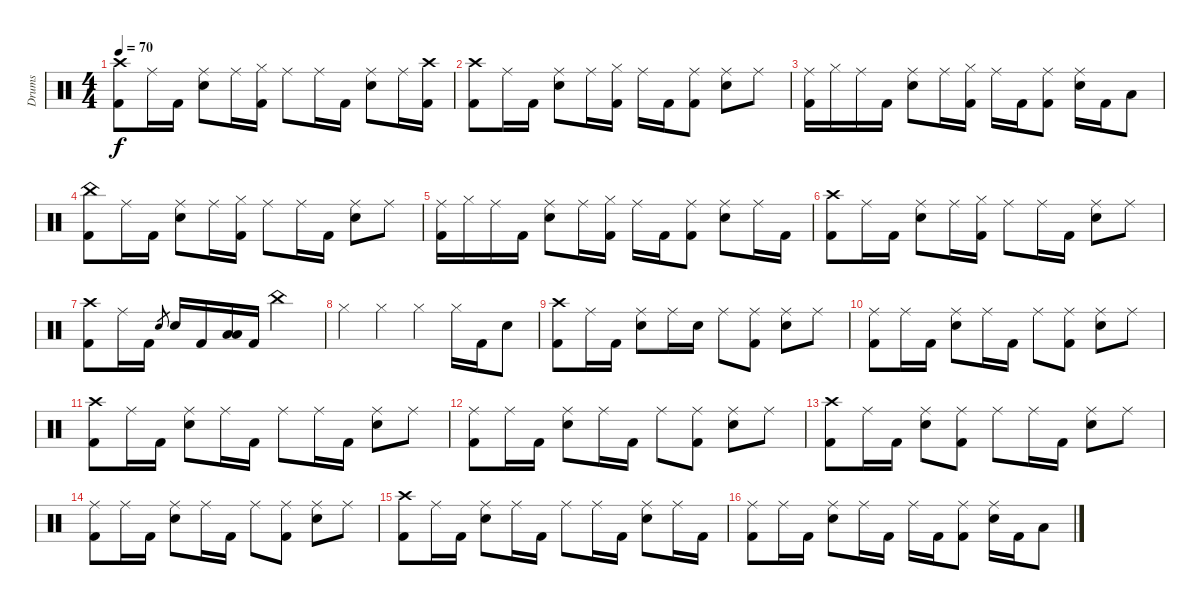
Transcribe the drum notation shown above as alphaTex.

\track ("Drums" "Drums") {instrument percussion}
\staff {score}
\articulation defaults
\ts (4 4)
\tempo 70
\clef neutral
\ks c
("Crash high (hit)" "Kick (hit) 2").8{dy f} "Ride (middle)".16 "Kick (hit) 2".16 ("Ride (middle)" "Electric Snare (hit)").8 "Ride (middle)".16 ("Hi-Hat (closed)" "Kick (hit) 2").16 "Ride (middle)".8 "Ride (middle)".16 "Kick (hit) 2".16 ("Ride (middle)" "Electric Snare (hit)").8 "Ride (middle)".16 ("Crash high (hit)" "Kick (hit) 2").16 |
("Crash high (hit)" "Kick (hit) 2").8 "Ride (middle)".16 "Kick (hit) 2".16 ("Ride (middle)" "Electric Snare (hit)").8 "Ride (middle)".16 ("Hi-Hat (closed)" "Kick (hit) 2").16 "Ride (middle)".16 "Kick (hit) 2".16 ("Ride (middle)" "Kick (hit) 2").8 ("Ride (middle)" "Electric Snare (hit)").8 "Ride (middle)".8 |
("Ride (middle)" "Kick (hit) 2").16 "Hi-Hat (closed)".16 "Ride (middle)".16 "Kick (hit) 2".16 ("Ride (middle)" "Electric Snare (hit)").8 "Ride (middle)".16 ("Hi-Hat (closed)" "Kick (hit) 2").16 "Ride (middle)".16 "Kick (hit) 2".16 ("Ride (middle)" "Kick (hit) 2").8 ("Ride (middle)" "Electric Snare (hit)").16 "Kick (hit) 2".16 "Low Tom (hit)".8 |
("China (hit)" "Kick (hit) 2").8 "Ride (middle)".16 "Kick (hit) 2".16 ("Ride (middle)" "Electric Snare (hit)").8 "Ride (middle)".16 ("Hi-Hat (closed)" "Kick (hit) 2").16 "Ride (middle)".8 "Ride (middle)".16 "Kick (hit) 2".16 ("Ride (middle)" "Electric Snare (hit)").8 "Ride (middle)".8 |
("Ride (middle)" "Kick (hit) 2").16 "Hi-Hat (closed)".16 "Ride (middle)".16 "Kick (hit) 2".16 ("Ride (middle)" "Electric Snare (hit)").8 "Ride (middle)".16 ("Hi-Hat (closed)" "Kick (hit) 2").16 "Ride (middle)".16 "Kick (hit) 2".16 ("Ride (middle)" "Kick (hit) 2").8 ("Ride (middle)" "Electric Snare (hit)").8 "Ride (middle)".16 "Kick (hit) 2".16 |
("Crash high (hit)" "Kick (hit) 2").8 "Ride (middle)".16 "Kick (hit) 2".16 ("Ride (middle)" "Electric Snare (hit)").8 "Ride (middle)".16 ("Hi-Hat (closed)" "Kick (hit) 2").16 "Ride (middle)".8 "Ride (middle)".16 "Kick (hit) 2".16 ("Ride (middle)" "Electric Snare (hit)").8 "Ride (middle)".8 |
("Crash high (hit)" "Kick (hit) 2").8 "Ride (middle)".16 "Kick (hit) 2".16 "Electric Snare (hit)".8{gr} "Electric Snare (hit)".16 "Kick (hit) 2".16 ("Low Tom (hit)" "Low Floor Tom (hit)").16 "Kick (hit) 2".16 "China (hit)".2 |
"Hi-Hat (closed)".4 "Hi-Hat (closed)".4 "Hi-Hat (closed)".4 "Hi-Hat (closed)".16 "Kick (hit) 2".16 "Electric Snare (hit)".8 |
("Crash high (hit)" "Kick (hit) 2").8 "Ride (middle)".16 "Kick (hit) 2".16 ("Ride (middle)" "Electric Snare (hit)").8 "Ride (middle)".16 "Electric Snare (hit)".16 "Ride (middle)".8 ("Ride (middle)" "Kick (hit) 2").8 ("Ride (middle)" "Electric Snare (hit)").8 "Ride (middle)".8 |
("Ride (middle)" "Kick (hit) 2").8 "Ride (middle)".16 "Kick (hit) 2".16 ("Ride (middle)" "Electric Snare (hit)").8 "Ride (middle)".16 "Kick (hit) 2".16 "Ride (middle)".8 ("Ride (middle)" "Kick (hit) 2").8 ("Ride (middle)" "Electric Snare (hit)").8 "Ride (middle)".8 |
("Crash high (hit)" "Kick (hit) 2").8 "Ride (middle)".16 "Kick (hit) 2".16 ("Ride (middle)" "Electric Snare (hit)").8 "Ride (middle)".16 "Kick (hit) 2".16 "Ride (middle)".8 "Ride (middle)".16 "Kick (hit) 2".16 ("Ride (middle)" "Electric Snare (hit)").8 "Ride (middle)".8 |
("Ride (middle)" "Kick (hit) 2").8 "Ride (middle)".16 "Kick (hit) 2".16 ("Ride (middle)" "Electric Snare (hit)").8 "Ride (middle)".16 "Kick (hit) 2".16 "Ride (middle)".8 ("Ride (middle)" "Kick (hit) 2").8 ("Ride (middle)" "Electric Snare (hit)").8 "Ride (middle)".8 |
("Crash high (hit)" "Kick (hit) 2").8 "Ride (middle)".16 "Kick (hit) 2".16 ("Ride (middle)" "Electric Snare (hit)").8 ("Ride (middle)" "Kick (hit) 2").8 "Ride (middle)".8 "Ride (middle)".16 "Kick (hit) 2".16 ("Ride (middle)" "Electric Snare (hit)").8 "Ride (middle)".8 |
("Ride (middle)" "Kick (hit) 2").8 "Ride (middle)".16 "Kick (hit) 2".16 ("Ride (middle)" "Electric Snare (hit)").8 "Ride (middle)".16 "Kick (hit) 2".16 "Ride (middle)".8 ("Ride (middle)" "Kick (hit) 2").8 ("Ride (middle)" "Electric Snare (hit)").8 "Ride (middle)".8 |
("Crash high (hit)" "Kick (hit) 2").8 "Ride (middle)".16 "Kick (hit) 2".16 ("Ride (middle)" "Electric Snare (hit)").8 "Ride (middle)".16 "Kick (hit) 2".16 "Ride (middle)".8 "Ride (middle)".16 "Kick (hit) 2".16 ("Ride (middle)" "Electric Snare (hit)").8 "Ride (middle)".16 "Kick (hit) 2".16 |
("Ride (middle)" "Kick (hit) 2").8 "Ride (middle)".16 "Kick (hit) 2".16 ("Ride (middle)" "Electric Snare (hit)").8 "Ride (middle)".16 "Kick (hit) 2".16 "Ride (middle)".16 "Kick (hit) 2".16 ("Ride (middle)" "Kick (hit) 2").8 ("Ride (middle)" "Electric Snare (hit)").16 "Kick (hit) 2".16 "Low Tom (hit)".8
